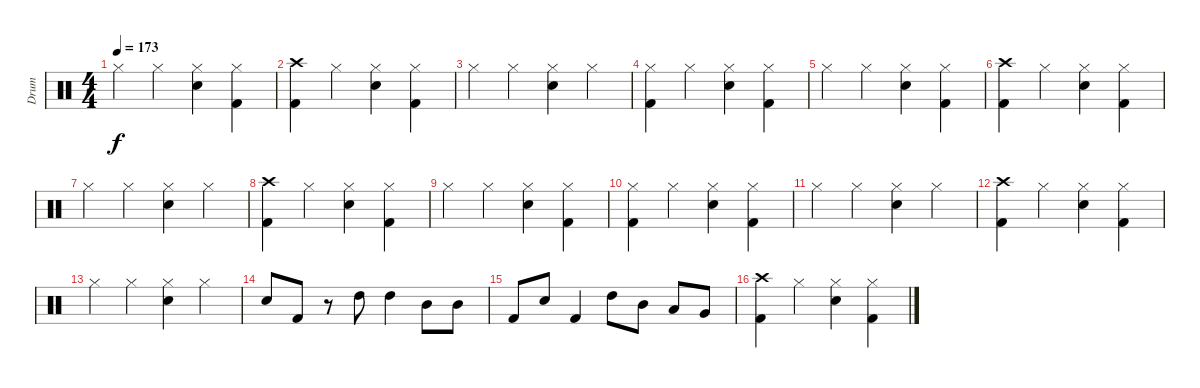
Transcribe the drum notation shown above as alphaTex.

\track ("Drum" "Drum") {instrument percussion}
\staff {score}
\articulation defaults
\ts (4 4)
\tempo 173
\clef neutral
\ks c "Hi-Hat (closed)".4{dy f} "Hi-Hat (closed)".4
("Hi-Hat (closed)" "Electric Snare (hit)").4 ("Hi-Hat (closed)" "Kick (hit) 2").4 |
("Crash high (hit)" "Kick (hit) 2").4 "Hi-Hat (closed)".4 ("Hi-Hat (closed)" "Electric Snare (hit)").4 ("Hi-Hat (closed)" "Kick (hit) 2").4 |
"Hi-Hat (closed)".4 "Hi-Hat (closed)".4 ("Hi-Hat (closed)" "Electric Snare (hit)").4 "Hi-Hat (closed)".4 |
("Hi-Hat (closed)" "Kick (hit) 2").4 "Hi-Hat (closed)".4 ("Hi-Hat (closed)" "Electric Snare (hit)").4 ("Hi-Hat (closed)" "Kick (hit) 2").4 |
"Hi-Hat (closed)".4 "Hi-Hat (closed)".4 ("Hi-Hat (closed)" "Electric Snare (hit)").4 ("Hi-Hat (closed)" "Kick (hit) 2").4 |
("Crash high (hit)" "Kick (hit) 2").4 "Hi-Hat (closed)".4 ("Hi-Hat (closed)" "Electric Snare (hit)").4 ("Hi-Hat (closed)" "Kick (hit) 2").4 |
"Hi-Hat (closed)".4 "Hi-Hat (closed)".4 ("Hi-Hat (closed)" "Electric Snare (hit)").4 "Hi-Hat (closed)".4 |
("Crash high (hit)" "Kick (hit) 2").4 "Hi-Hat (closed)".4 ("Hi-Hat (closed)" "Electric Snare (hit)").4 ("Hi-Hat (closed)" "Kick (hit) 2").4 |
"Hi-Hat (closed)".4 "Hi-Hat (closed)".4 ("Hi-Hat (closed)" "Electric Snare (hit)").4 ("Hi-Hat (closed)" "Kick (hit) 2").4 |
("Hi-Hat (closed)" "Kick (hit) 2").4 "Hi-Hat (closed)".4 ("Hi-Hat (closed)" "Electric Snare (hit)").4 ("Hi-Hat (closed)" "Kick (hit) 2").4 |
"Hi-Hat (closed)".4 "Hi-Hat (closed)".4 ("Hi-Hat (closed)" "Electric Snare (hit)").4 "Hi-Hat (closed)".4 |
("Crash high (hit)" "Kick (hit) 2").4 "Hi-Hat (closed)".4 ("Hi-Hat (closed)" "Electric Snare (hit)").4 ("Hi-Hat (closed)" "Kick (hit) 2").4 |
"Hi-Hat (closed)".4 "Hi-Hat (closed)".4 ("Hi-Hat (closed)" "Electric Snare (hit)").4 "Hi-Hat (closed)".4 |
"Electric Snare (hit)".8 "Kick (hit) 2".8 r.8 "High Tom (hit)".8 "High Tom (hit)".4 "Mid Tom (hit)".8 "Mid Tom (hit)".8 |
"Kick (hit) 2".8 "Electric Snare (hit)".8 "Kick (hit) 2".4 "High Tom (hit)".8 "Mid Tom (hit)".8 "Low Tom (hit)".8 "Very Low Tom (hit)".8 |
("Crash high (hit)" "Kick (hit) 2").4 "Hi-Hat (closed)".4 ("Hi-Hat (closed)" "Electric Snare (hit)").4 ("Hi-Hat (closed)" "Kick (hit) 2").4
